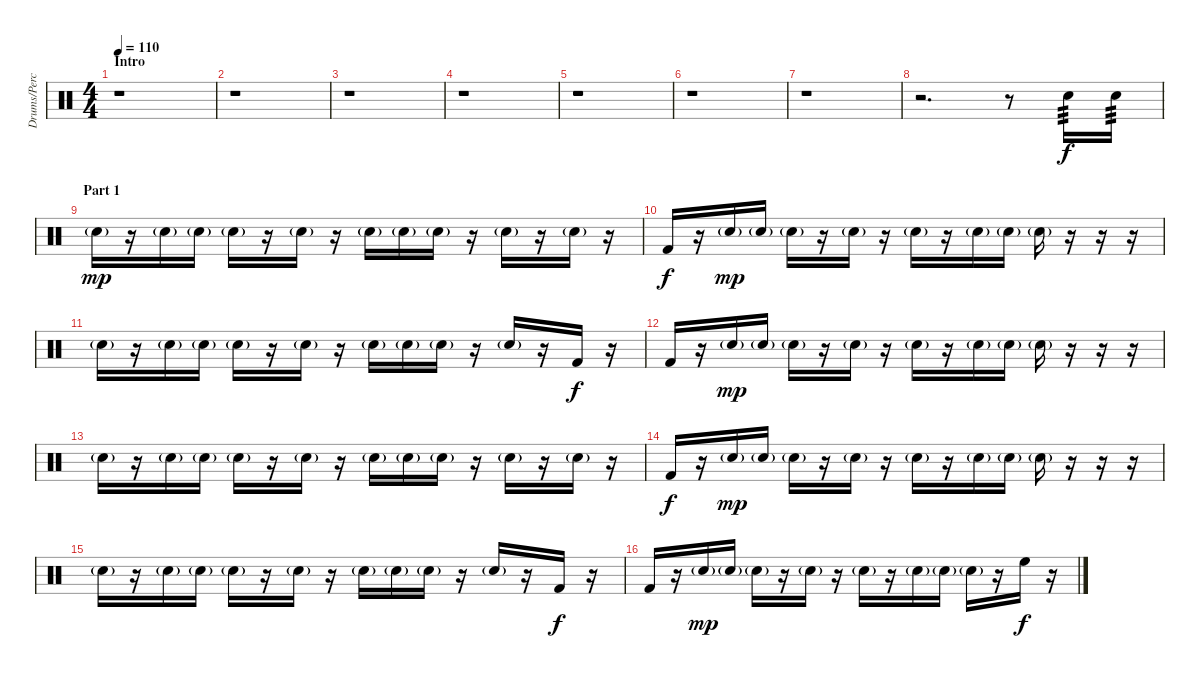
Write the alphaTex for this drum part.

\track ("Drums/Percussions" "Drums/Perc") {instrument percussion}
\staff {score}
\articulation defaults
\ts (4 4)
\section ("" "Intro")
\tempo 110
\clef neutral
\ks c
r.1{dy f} |
r.1 |
r.1 |
r.1 |
r.1 |
r.1 |
r.1 |
r.2{d} r.8 "Snare (hit) 2".16{tp 3} "Snare (hit) 2".16{tp 3} |
\section ("" "Part 1")
"Snare (hit) 2"{g}.16{dy mp} r.16 "Snare (hit) 2"{g}.16 "Snare (hit) 2"{g}.16 "Snare (hit) 2"{g}.16 r.16 "Snare (hit) 2"{g}.16 r.16 "Snare (hit) 2"{g}.16 "Snare (hit) 2"{g}.16 "Snare (hit) 2"{g}.16 r.16 "Snare (hit) 2"{g}.16 r.16 "Snare (hit) 2"{g}.16 r.16 |
"Kick (hit) 2".16{dy f} r.16 "Snare (hit) 2"{g}.16{dy mp} "Snare (hit) 2"{g}.16 "Snare (hit) 2"{g}.16 r.16 "Snare (hit) 2"{g}.16 r.16 "Snare (hit) 2"{g}.16 r.16 "Snare (hit) 2"{g}.16 "Snare (hit) 2"{g}.16 "Snare (hit) 2"{g}.16 r.16 r.16 r.16 |
"Snare (hit) 2"{g}.16 r.16 "Snare (hit) 2"{g}.16 "Snare (hit) 2"{g}.16 "Snare (hit) 2"{g}.16 r.16 "Snare (hit) 2"{g}.16 r.16 "Snare (hit) 2"{g}.16 "Snare (hit) 2"{g}.16 "Snare (hit) 2"{g}.16 r.16 "Snare (hit) 2"{g}.16 r.16 "Kick (hit) 2".16{dy f} r.16 |
"Kick (hit) 2".16 r.16 "Snare (hit) 2"{g}.16{dy mp} "Snare (hit) 2"{g}.16 "Snare (hit) 2"{g}.16 r.16 "Snare (hit) 2"{g}.16 r.16 "Snare (hit) 2"{g}.16 r.16 "Snare (hit) 2"{g}.16 "Snare (hit) 2"{g}.16 "Snare (hit) 2"{g}.16 r.16 r.16 r.16 |
"Snare (hit) 2"{g}.16 r.16 "Snare (hit) 2"{g}.16 "Snare (hit) 2"{g}.16 "Snare (hit) 2"{g}.16 r.16 "Snare (hit) 2"{g}.16 r.16 "Snare (hit) 2"{g}.16 "Snare (hit) 2"{g}.16 "Snare (hit) 2"{g}.16 r.16 "Snare (hit) 2"{g}.16 r.16 "Snare (hit) 2"{g}.16 r.16 |
"Kick (hit) 2".16{dy f} r.16 "Snare (hit) 2"{g}.16{dy mp} "Snare (hit) 2"{g}.16 "Snare (hit) 2"{g}.16 r.16 "Snare (hit) 2"{g}.16 r.16 "Snare (hit) 2"{g}.16 r.16 "Snare (hit) 2"{g}.16 "Snare (hit) 2"{g}.16 "Snare (hit) 2"{g}.16 r.16 r.16 r.16 |
"Snare (hit) 2"{g}.16 r.16 "Snare (hit) 2"{g}.16 "Snare (hit) 2"{g}.16 "Snare (hit) 2"{g}.16 r.16 "Snare (hit) 2"{g}.16 r.16 "Snare (hit) 2"{g}.16 "Snare (hit) 2"{g}.16 "Snare (hit) 2"{g}.16 r.16 "Snare (hit) 2"{g}.16 r.16 "Kick (hit) 2".16{dy f} r.16 |
"Kick (hit) 2".16 r.16 "Snare (hit) 2"{g}.16{dy mp} "Snare (hit) 2"{g}.16 "Snare (hit) 2"{g}.16 r.16 "Snare (hit) 2"{g}.16 r.16 "Snare (hit) 2"{g}.16 r.16 "Snare (hit) 2"{g}.16 "Snare (hit) 2"{g}.16 "Snare (hit) 2"{g}.16 r.16 "High Floor Tom (hit)".16{dy f} r.16
